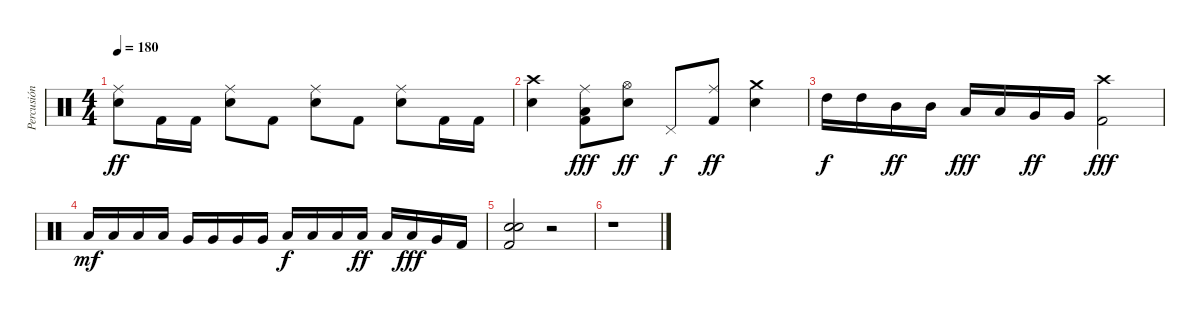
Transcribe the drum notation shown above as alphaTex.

\track ("Percusión" "Percusión") {instrument percussion}
\staff {score}
\articulation defaults
\ts (4 4)
\tempo 180
\clef neutral
\ks c
("Ride (middle)" "Electric Snare (hit)").8{dy ff} "Kick (hit) 2".16 "Kick (hit) 2".16 ("Ride (middle)" "Electric Snare (hit)").8 "Kick (hit) 2".8 ("Ride (middle)" "Electric Snare (hit)").8 "Kick (hit) 2".8 ("Ride (middle)" "Electric Snare (hit)").8 "Kick (hit) 2".16 "Kick (hit) 2".16 |
("Crash high (hit)" "Electric Snare (hit)").4 ("Ride (middle)" "Low Floor Tom (hit)" "Kick (hit) 2").8{dy fff} ("Hi-Hat (open)" "Electric Snare (hit)").8{dy ff} "Pedal Hi-Hat (hit)".8{dy f} ("Ride (middle)" "Kick (hit) 2").8{dy ff} ("Crash medium (hit)" "Electric Snare (hit)").4 |
"High Tom (hit)".16{dy f} "High Tom (hit)".16 "Mid Tom (hit)".16{dy ff} "Mid Tom (hit)".16 "Low Tom (hit)".16{dy fff} "Low Tom (hit)".16 "Very Low Tom (hit)".16{dy ff} "Very Low Tom (hit)".16 ("Crash high (hit)" "Kick (hit) 2").2{dy fff} |
"Low Tom (hit)".16{dy mf} "Low Tom (hit)".16 "Low Tom (hit)".16 "Low Tom (hit)".16 "Very Low Tom (hit)".16 "Very Low Tom (hit)".16 "Very Low Tom (hit)".16 "Very Low Tom (hit)".16 "Low Floor Tom (hit)".16{dy f} "Low Floor Tom (hit)".16 "Low Floor Tom (hit)".16 "Low Floor Tom (hit)".16{dy ff} "Low Tom (hit)".16 "Low Tom (hit)".16{dy fff} "Very Low Tom (hit)".16 "Kick (hit) 2".16 |
("Electric Snare (hit)" "Electric Snare (hit)" "Kick (hit) 2").2{bd 240} r.2 |
r.1
